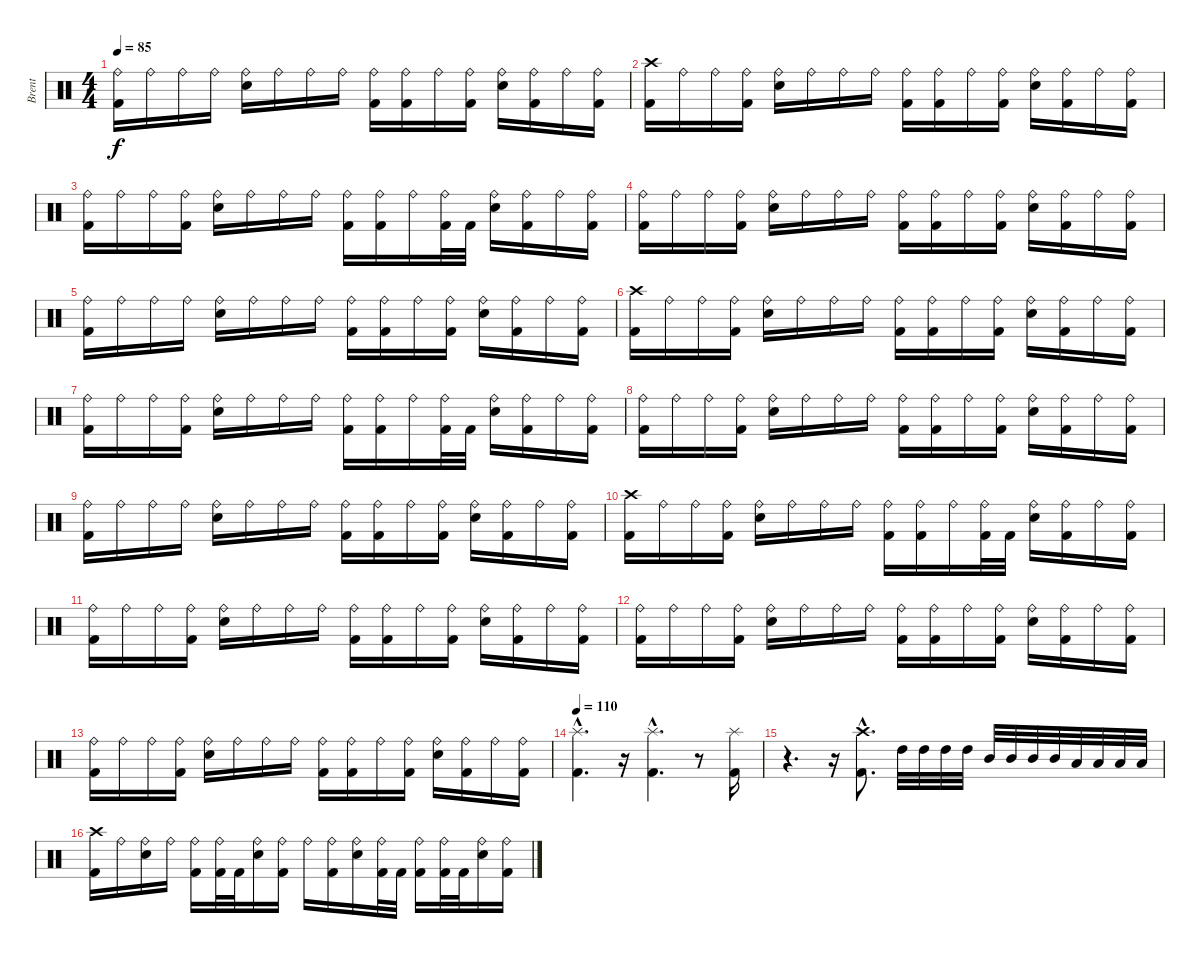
\track ("Brent" "Brent") {instrument percussion}
\staff {score}
\articulation defaults
\ts (4 4)
\tempo 85
\clef neutral
\ks c
("Ride (bell)" "Kick (hit) 2").16{dy f} "Ride (bell)".16 "Ride (bell)".16 "Ride (bell)".16 ("Ride (bell)" "Snare (hit) 2").16 "Ride (bell)".16 "Ride (bell)".16 "Ride (bell)".16 ("Ride (bell)" "Kick (hit) 2").16 ("Ride (bell)" "Kick (hit) 2").16 "Ride (bell)".16 ("Ride (bell)" "Kick (hit) 2").16 ("Ride (bell)" "Snare (hit) 2").16 ("Ride (bell)" "Kick (hit) 2").16 "Ride (bell)".16 ("Ride (bell)" "Kick (hit) 2").16 |
("Crash high (hit)" "Kick (hit) 2").16 "Ride (bell)".16 "Ride (bell)".16 ("Ride (bell)" "Kick (hit) 2").16 ("Ride (bell)" "Snare (hit) 2").16 "Ride (bell)".16 "Ride (bell)".16 "Ride (bell)".16 ("Ride (bell)" "Kick (hit) 2").16 ("Ride (bell)" "Kick (hit) 2").16 "Ride (bell)".16 ("Ride (bell)" "Kick (hit) 2").16 ("Ride (bell)" "Snare (hit) 2").16 ("Ride (bell)" "Kick (hit) 2").16 "Ride (bell)".16 ("Ride (bell)" "Kick (hit) 2").16 |
("Ride (bell)" "Kick (hit) 2").16 "Ride (bell)".16 "Ride (bell)".16 ("Ride (bell)" "Kick (hit) 2").16 ("Ride (bell)" "Snare (hit) 2").16 "Ride (bell)".16 "Ride (bell)".16 "Ride (bell)".16 ("Ride (bell)" "Kick (hit) 2").16 ("Ride (bell)" "Kick (hit) 2").16 "Ride (bell)".16 ("Ride (bell)" "Kick (hit) 2").32 "Kick (hit) 2".32 ("Ride (bell)" "Snare (hit) 2").16 ("Ride (bell)" "Kick (hit) 2").16 "Ride (bell)".16 ("Ride (bell)" "Kick (hit) 2").16 |
("Ride (bell)" "Kick (hit) 2").16 "Ride (bell)".16 "Ride (bell)".16 ("Ride (bell)" "Kick (hit) 2").16 ("Ride (bell)" "Snare (hit) 2").16 "Ride (bell)".16 "Ride (bell)".16 "Ride (bell)".16 ("Ride (bell)" "Kick (hit) 2").16 ("Ride (bell)" "Kick (hit) 2").16 "Ride (bell)".16 ("Ride (bell)" "Kick (hit) 2").16 ("Ride (bell)" "Snare (hit) 2").16 ("Ride (bell)" "Kick (hit) 2").16 "Ride (bell)".16 ("Ride (bell)" "Kick (hit) 2").16 |
("Ride (bell)" "Kick (hit) 2").16 "Ride (bell)".16 "Ride (bell)".16 "Ride (bell)".16 ("Ride (bell)" "Snare (hit) 2").16 "Ride (bell)".16 "Ride (bell)".16 "Ride (bell)".16 ("Ride (bell)" "Kick (hit) 2").16 ("Ride (bell)" "Kick (hit) 2").16 "Ride (bell)".16 ("Ride (bell)" "Kick (hit) 2").16 ("Ride (bell)" "Snare (hit) 2").16 ("Ride (bell)" "Kick (hit) 2").16 "Ride (bell)".16 ("Ride (bell)" "Kick (hit) 2").16 |
("Crash high (hit)" "Kick (hit) 2").16 "Ride (bell)".16 "Ride (bell)".16 ("Ride (bell)" "Kick (hit) 2").16 ("Ride (bell)" "Snare (hit) 2").16 "Ride (bell)".16 "Ride (bell)".16 "Ride (bell)".16 ("Ride (bell)" "Kick (hit) 2").16 ("Ride (bell)" "Kick (hit) 2").16 "Ride (bell)".16 ("Ride (bell)" "Kick (hit) 2").16 ("Ride (bell)" "Snare (hit) 2").16 ("Ride (bell)" "Kick (hit) 2").16 "Ride (bell)".16 ("Ride (bell)" "Kick (hit) 2").16 |
("Ride (bell)" "Kick (hit) 2").16 "Ride (bell)".16 "Ride (bell)".16 ("Ride (bell)" "Kick (hit) 2").16 ("Ride (bell)" "Snare (hit) 2").16 "Ride (bell)".16 "Ride (bell)".16 "Ride (bell)".16 ("Ride (bell)" "Kick (hit) 2").16 ("Ride (bell)" "Kick (hit) 2").16 "Ride (bell)".16 ("Ride (bell)" "Kick (hit) 2").32 "Kick (hit) 2".32 ("Ride (bell)" "Snare (hit) 2").16 ("Ride (bell)" "Kick (hit) 2").16 "Ride (bell)".16 ("Ride (bell)" "Kick (hit) 2").16 |
("Ride (bell)" "Kick (hit) 2").16 "Ride (bell)".16 "Ride (bell)".16 ("Ride (bell)" "Kick (hit) 2").16 ("Ride (bell)" "Snare (hit) 2").16 "Ride (bell)".16 "Ride (bell)".16 "Ride (bell)".16 ("Ride (bell)" "Kick (hit) 2").16 ("Ride (bell)" "Kick (hit) 2").16 "Ride (bell)".16 ("Ride (bell)" "Kick (hit) 2").16 ("Ride (bell)" "Snare (hit) 2").16 ("Ride (bell)" "Kick (hit) 2").16 "Ride (bell)".16 ("Ride (bell)" "Kick (hit) 2").16 |
("Ride (bell)" "Kick (hit) 2").16 "Ride (bell)".16 "Ride (bell)".16 "Ride (bell)".16 ("Ride (bell)" "Snare (hit) 2").16 "Ride (bell)".16 "Ride (bell)".16 "Ride (bell)".16 ("Ride (bell)" "Kick (hit) 2").16 ("Ride (bell)" "Kick (hit) 2").16 "Ride (bell)".16 ("Ride (bell)" "Kick (hit) 2").16 ("Ride (bell)" "Snare (hit) 2").16 ("Ride (bell)" "Kick (hit) 2").16 "Ride (bell)".16 ("Ride (bell)" "Kick (hit) 2").16 |
("Crash high (hit)" "Kick (hit) 2").16 "Ride (bell)".16 "Ride (bell)".16 ("Ride (bell)" "Kick (hit) 2").16 ("Ride (bell)" "Snare (hit) 2").16 "Ride (bell)".16 "Ride (bell)".16 "Ride (bell)".16 ("Ride (bell)" "Kick (hit) 2").16 ("Ride (bell)" "Kick (hit) 2").16 "Ride (bell)".16 ("Ride (bell)" "Kick (hit) 2").32 "Kick (hit) 2".32 ("Ride (bell)" "Snare (hit) 2").16 ("Ride (bell)" "Kick (hit) 2").16 "Ride (bell)".16 ("Ride (bell)" "Kick (hit) 2").16 |
("Ride (bell)" "Kick (hit) 2").16 "Ride (bell)".16 "Ride (bell)".16 ("Ride (bell)" "Kick (hit) 2").16 ("Ride (bell)" "Snare (hit) 2").16 "Ride (bell)".16 "Ride (bell)".16 "Ride (bell)".16 ("Ride (bell)" "Kick (hit) 2").16 ("Ride (bell)" "Kick (hit) 2").16 "Ride (bell)".16 ("Ride (bell)" "Kick (hit) 2").16 ("Ride (bell)" "Snare (hit) 2").16 ("Ride (bell)" "Kick (hit) 2").16 "Ride (bell)".16 ("Ride (bell)" "Kick (hit) 2").16 |
("Ride (bell)" "Kick (hit) 2").16 "Ride (bell)".16 "Ride (bell)".16 ("Ride (bell)" "Kick (hit) 2").16 ("Ride (bell)" "Snare (hit) 2").16 "Ride (bell)".16 "Ride (bell)".16 "Ride (bell)".16 ("Ride (bell)" "Kick (hit) 2").16 ("Ride (bell)" "Kick (hit) 2").16 "Ride (bell)".16 ("Ride (bell)" "Kick (hit) 2").16 ("Ride (bell)" "Snare (hit) 2").16 ("Ride (bell)" "Kick (hit) 2").16 "Ride (bell)".16 ("Ride (bell)" "Kick (hit) 2").16 |
("Ride (bell)" "Kick (hit) 2").16 "Ride (bell)".16 "Ride (bell)".16 ("Ride (bell)" "Kick (hit) 2").16 ("Ride (bell)" "Snare (hit) 2").16 "Ride (bell)".16 "Ride (bell)".16 "Ride (bell)".16 ("Ride (bell)" "Kick (hit) 2").16 ("Ride (bell)" "Kick (hit) 2").16 "Ride (bell)".16 ("Ride (bell)" "Kick (hit) 2").16 ("Ride (bell)" "Snare (hit) 2").16 ("Ride (bell)" "Kick (hit) 2").16 "Ride (bell)".16 ("Ride (bell)" "Kick (hit) 2").16 |
\tempo 110
("Splash (hit)"{hac} "Kick (hit) 2"{hac}).4{d} r.16 ("Splash (hit)"{hac} "Kick (hit) 2"{hac}).4{d} r.8 ("Splash (hit)" "Kick (hit) 2").16 |
r.4{d} r.16 ("Crash high (hit)"{hac} "Kick (hit) 2"{hac}).8{d} "High Tom (hit)".32 "High Tom (hit)".32 "High Tom (hit)".32 "High Tom (hit)".32 "Mid Tom (hit)".32 "Mid Tom (hit)".32 "Mid Tom (hit)".32 "Mid Tom (hit)".32 "Low Tom (hit)".32 "Low Tom (hit)".32 "Low Tom (hit)".32 "Low Tom (hit)".32 |
("Crash high (hit)" "Kick (hit) 2").16 "Ride (bell)".16 ("Ride (bell)" "Snare (hit) 2").16 "Ride (bell)".16 ("Ride (bell)" "Kick (hit) 2").16 ("Ride (bell)" "Kick (hit) 2").32 "Kick (hit) 2".32 ("Ride (bell)" "Snare (hit) 2").16 ("Ride (bell)" "Kick (hit) 2").16 "Ride (bell)".16 ("Ride (bell)" "Kick (hit) 2").16 ("Ride (bell)" "Snare (hit) 2").16 ("Ride (bell)" "Kick (hit) 2").32 "Kick (hit) 2".32 ("Ride (bell)" "Kick (hit) 2").16 ("Ride (bell)" "Kick (hit) 2").32 "Kick (hit) 2".32 ("Ride (bell)" "Snare (hit) 2").16 ("Ride (bell)" "Kick (hit) 2").16
